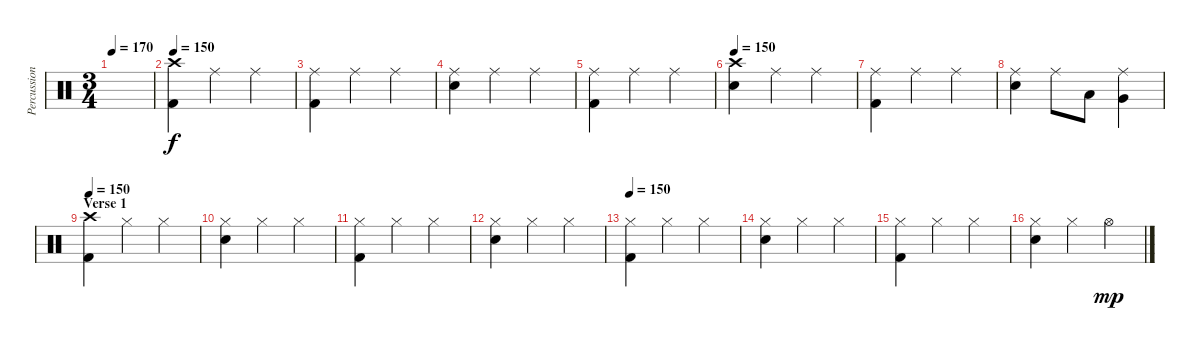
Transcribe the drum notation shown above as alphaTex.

\track ("Percussion" "Percussion") {instrument percussion}
\staff {score}
\articulation defaults
\ts (3 4)
\tempo 170
\tempo 150
\tempo 170
\clef neutral
\ks c
|
\tempo 150
("Crash high (hit)" "Kick (hit) 2").4 "Ride (middle)".4 "Ride (middle)".4 |
("Ride (middle)" "Kick (hit) 2").4 "Ride (middle)".4 "Ride (middle)".4 |
("Ride (middle)" "Electric Snare (hit)").4 "Ride (middle)".4 "Ride (middle)".4 |
("Ride (middle)" "Kick (hit) 2").4 "Ride (middle)".4 "Ride (middle)".4 |
\tempo 150
("Crash high (hit)" "Electric Snare (hit)").4 "Ride (middle)".4 "Ride (middle)".4 |
("Ride (middle)" "Kick (hit) 2").4 "Ride (middle)".4 "Ride (middle)".4 |
("Ride (middle)" "Electric Snare (hit)").4 "Ride (middle)".8 "Low Tom (hit)".8 ("Ride (middle)" "Very Low Tom (hit)").4 |
\section ("" "Verse 1")
\tempo 150
("Crash high (hit)" "Kick (hit) 2").4 "Hi-Hat (closed)".4 "Hi-Hat (closed)".4 |
("Hi-Hat (closed)" "Electric Snare (hit)").4 "Hi-Hat (closed)".4 "Hi-Hat (closed)".4 |
("Hi-Hat (closed)" "Kick (hit) 2").4 "Hi-Hat (closed)".4 "Hi-Hat (closed)".4 |
("Hi-Hat (closed)" "Electric Snare (hit)").4 "Hi-Hat (closed)".4 "Hi-Hat (closed)".4 |
\tempo 150
("Hi-Hat (closed)" "Kick (hit) 2").4 "Hi-Hat (closed)".4 "Hi-Hat (closed)".4 |
("Hi-Hat (closed)" "Electric Snare (hit)").4 "Hi-Hat (closed)".4 "Hi-Hat (closed)".4 |
("Hi-Hat (closed)" "Kick (hit) 2").4 "Hi-Hat (closed)".4 "Hi-Hat (closed)".4 |
("Hi-Hat (closed)" "Electric Snare (hit)").4 "Hi-Hat (closed)".4 "Hi-Hat (open)".4{dy mp}
